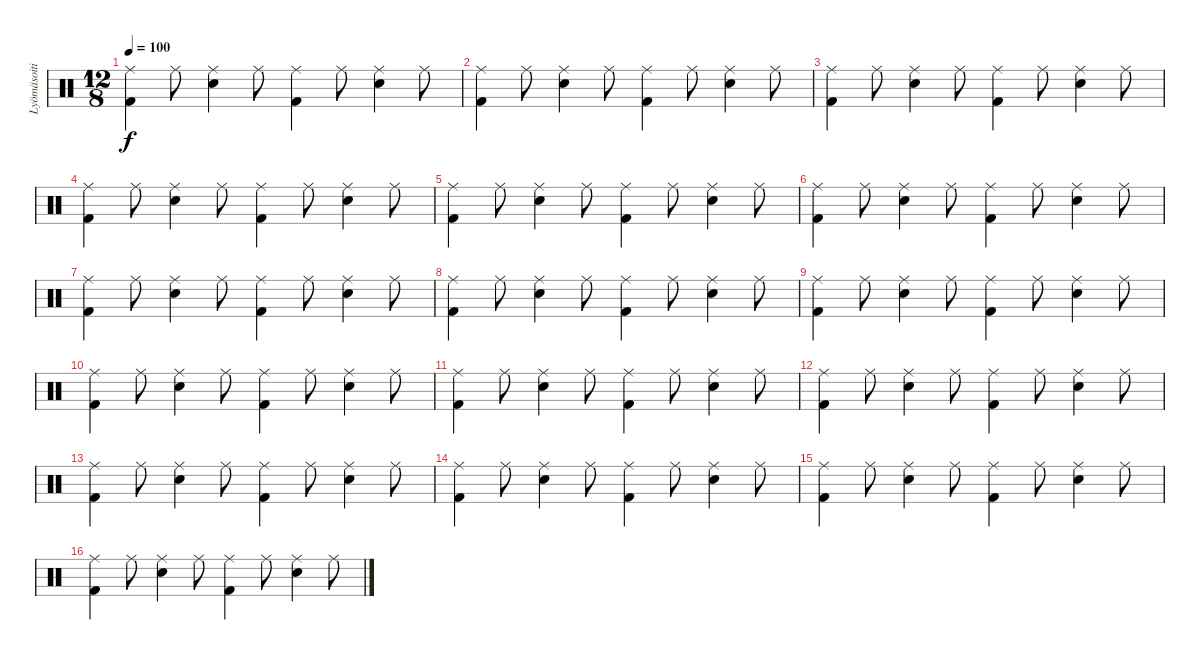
\track ("Lyömäsoitin" "Lyömäsoiti") {instrument percussion}
\staff {score}
\articulation defaults
\ts (12 8)
\tempo 100
\clef neutral
\ks c
("Ride (middle)" "Kick (hit) 2").4{dy f} "Ride (middle)".8 ("Ride (middle)" "Snare (hit) 2").4 "Ride (middle)".8 ("Ride (middle)" "Kick (hit) 2").4 "Ride (middle)".8 ("Ride (middle)" "Snare (hit) 2").4 "Ride (middle)".8 |
("Ride (middle)" "Kick (hit) 2").4 "Ride (middle)".8 ("Ride (middle)" "Snare (hit) 2").4 "Ride (middle)".8 ("Ride (middle)" "Kick (hit) 2").4 "Ride (middle)".8 ("Ride (middle)" "Snare (hit) 2").4 "Ride (middle)".8 |
("Ride (middle)" "Kick (hit) 2").4 "Ride (middle)".8 ("Ride (middle)" "Snare (hit) 2").4 "Ride (middle)".8 ("Ride (middle)" "Kick (hit) 2").4 "Ride (middle)".8 ("Ride (middle)" "Snare (hit) 2").4 "Ride (middle)".8 |
("Ride (middle)" "Kick (hit) 2").4 "Ride (middle)".8 ("Ride (middle)" "Snare (hit) 2").4 "Ride (middle)".8 ("Ride (middle)" "Kick (hit) 2").4 "Ride (middle)".8 ("Ride (middle)" "Snare (hit) 2").4 "Ride (middle)".8 |
("Ride (middle)" "Kick (hit) 2").4 "Ride (middle)".8 ("Ride (middle)" "Snare (hit) 2").4 "Ride (middle)".8 ("Ride (middle)" "Kick (hit) 2").4 "Ride (middle)".8 ("Ride (middle)" "Snare (hit) 2").4 "Ride (middle)".8 |
("Ride (middle)" "Kick (hit) 2").4 "Ride (middle)".8 ("Ride (middle)" "Snare (hit) 2").4 "Ride (middle)".8 ("Ride (middle)" "Kick (hit) 2").4 "Ride (middle)".8 ("Ride (middle)" "Snare (hit) 2").4 "Ride (middle)".8 |
("Ride (middle)" "Kick (hit) 2").4 "Ride (middle)".8 ("Ride (middle)" "Snare (hit) 2").4 "Ride (middle)".8 ("Ride (middle)" "Kick (hit) 2").4 "Ride (middle)".8 ("Ride (middle)" "Snare (hit) 2").4 "Ride (middle)".8 |
("Ride (middle)" "Kick (hit) 2").4 "Ride (middle)".8 ("Ride (middle)" "Snare (hit) 2").4 "Ride (middle)".8 ("Ride (middle)" "Kick (hit) 2").4 "Ride (middle)".8 ("Ride (middle)" "Snare (hit) 2").4 "Ride (middle)".8 |
("Ride (middle)" "Kick (hit) 2").4 "Ride (middle)".8 ("Ride (middle)" "Snare (hit) 2").4 "Ride (middle)".8 ("Ride (middle)" "Kick (hit) 2").4 "Ride (middle)".8 ("Ride (middle)" "Snare (hit) 2").4 "Ride (middle)".8 |
("Ride (middle)" "Kick (hit) 2").4 "Ride (middle)".8 ("Ride (middle)" "Snare (hit) 2").4 "Ride (middle)".8 ("Ride (middle)" "Kick (hit) 2").4 "Ride (middle)".8 ("Ride (middle)" "Snare (hit) 2").4 "Ride (middle)".8 |
("Ride (middle)" "Kick (hit) 2").4 "Ride (middle)".8 ("Ride (middle)" "Snare (hit) 2").4 "Ride (middle)".8 ("Ride (middle)" "Kick (hit) 2").4 "Ride (middle)".8 ("Ride (middle)" "Snare (hit) 2").4 "Ride (middle)".8 |
("Ride (middle)" "Kick (hit) 2").4 "Ride (middle)".8 ("Ride (middle)" "Snare (hit) 2").4 "Ride (middle)".8 ("Ride (middle)" "Kick (hit) 2").4 "Ride (middle)".8 ("Ride (middle)" "Snare (hit) 2").4 "Ride (middle)".8 |
("Ride (middle)" "Kick (hit) 2").4 "Ride (middle)".8 ("Ride (middle)" "Snare (hit) 2").4 "Ride (middle)".8 ("Ride (middle)" "Kick (hit) 2").4 "Ride (middle)".8 ("Ride (middle)" "Snare (hit) 2").4 "Ride (middle)".8 |
("Ride (middle)" "Kick (hit) 2").4 "Ride (middle)".8 ("Ride (middle)" "Snare (hit) 2").4 "Ride (middle)".8 ("Ride (middle)" "Kick (hit) 2").4 "Ride (middle)".8 ("Ride (middle)" "Snare (hit) 2").4 "Ride (middle)".8 |
("Ride (middle)" "Kick (hit) 2").4 "Ride (middle)".8 ("Ride (middle)" "Snare (hit) 2").4 "Ride (middle)".8 ("Ride (middle)" "Kick (hit) 2").4 "Ride (middle)".8 ("Ride (middle)" "Snare (hit) 2").4 "Ride (middle)".8 |
("Ride (middle)" "Kick (hit) 2").4 "Ride (middle)".8 ("Ride (middle)" "Snare (hit) 2").4 "Ride (middle)".8 ("Ride (middle)" "Kick (hit) 2").4 "Ride (middle)".8 ("Ride (middle)" "Snare (hit) 2").4 "Ride (middle)".8
